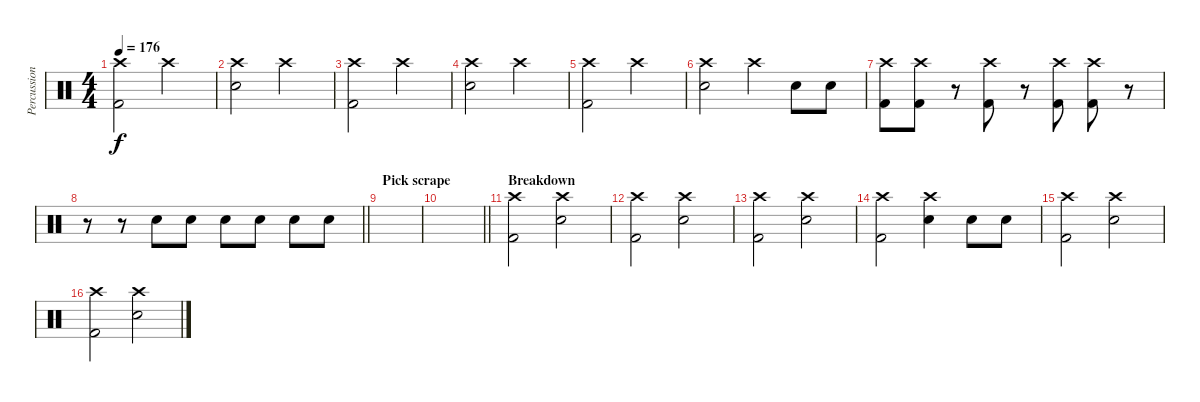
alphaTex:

\track ("Percussion" "Percussion") {instrument percussion}
\staff {score}
\articulation defaults
\ts (4 4)
\tempo 176
\clef neutral
\ks c
("Crash high (hit)" "Kick (hit) 2").2{dy f} "Crash high (hit)".2 |
("Crash high (hit)" "Snare (hit) 2").2 "Crash high (hit)".2 |
("Crash high (hit)" "Kick (hit) 2").2 "Crash high (hit)".2 |
("Crash high (hit)" "Snare (hit) 2").2 "Crash high (hit)".2 |
("Crash high (hit)" "Kick (hit) 2").2 "Crash high (hit)".2 |
("Crash high (hit)" "Snare (hit) 2").2 "Crash high (hit)".4 "Snare (hit) 2".8 "Snare (hit) 2".8 |
("Crash high (hit)" "Kick (hit) 2").8 ("Crash high (hit)" "Kick (hit) 2").8 r.8 ("Crash high (hit)" "Kick (hit) 2").8 r.8 ("Crash high (hit)" "Kick (hit) 2").8 ("Crash high (hit)" "Kick (hit) 2").8 r.8 |
\barLineRight lightlight
r.8 r.8 "Snare (hit) 2".8 "Snare (hit) 2".8 "Snare (hit) 2".8 "Snare (hit) 2".8 "Snare (hit) 2".8 "Snare (hit) 2".8 |
\section ("" "Pick scrape")
|
\barLineRight lightlight
|
\section ("" "Breakdown")
("Crash high (hit)" "Kick (hit) 2").2 ("Crash high (hit)" "Snare (hit) 2").2 |
("Crash high (hit)" "Kick (hit) 2").2 ("Crash high (hit)" "Snare (hit) 2").2 |
("Crash high (hit)" "Kick (hit) 2").2 ("Crash high (hit)" "Snare (hit) 2").2 |
("Crash high (hit)" "Kick (hit) 2").2 ("Crash high (hit)" "Snare (hit) 2").4 "Snare (hit) 2".8 "Snare (hit) 2".8 |
("Crash high (hit)" "Kick (hit) 2").2 ("Crash high (hit)" "Snare (hit) 2").2 |
("Crash high (hit)" "Kick (hit) 2").2 ("Crash high (hit)" "Snare (hit) 2").2
